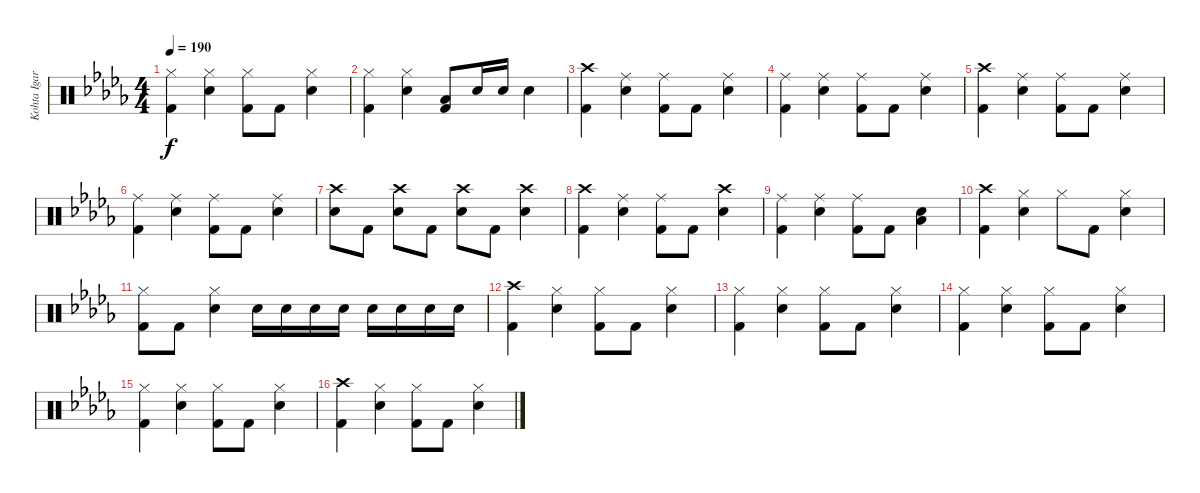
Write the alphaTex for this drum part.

\track ("Kohta Igarashi" "Kohta Igar") {instrument percussion}
\staff {score}
\articulation defaults
\ts (4 4)
\tempo 190
\clef neutral
\ks db
("Hi-Hat (closed)" "Kick (hit) 2").4{dy f} ("Hi-Hat (closed)" "Electric Snare (hit)").4 ("Hi-Hat (closed)" "Kick (hit) 2").8 "Kick (hit) 2".8 ("Hi-Hat (closed)" "Electric Snare (hit)").4 |
("Hi-Hat (closed)" "Kick (hit) 2").4 ("Hi-Hat (closed)" "Electric Snare (hit)").4 ("Low Floor Tom (hit)" "Kick (hit) 2").8 "Electric Snare (hit)".16 "Electric Snare (hit)".16 "Electric Snare (hit)".4 |
("Crash high (hit)" "Kick (hit) 2").4 ("Ride (middle)" "Electric Snare (hit)").4 ("Ride (middle)" "Kick (hit) 2").8 "Kick (hit) 2".8 ("Ride (middle)" "Electric Snare (hit)").4 |
("Ride (middle)" "Kick (hit) 2").4 ("Ride (middle)" "Electric Snare (hit)").4 ("Ride (middle)" "Kick (hit) 2").8 "Kick (hit) 2".8 ("Ride (middle)" "Electric Snare (hit)").4 |
("Crash high (hit)" "Kick (hit) 2").4 ("Ride (middle)" "Electric Snare (hit)").4 ("Ride (middle)" "Kick (hit) 2").8 "Kick (hit) 2".8 ("Ride (middle)" "Electric Snare (hit)").4 |
("Ride (middle)" "Kick (hit) 2").4 ("Ride (middle)" "Electric Snare (hit)").4 ("Ride (middle)" "Kick (hit) 2").8 "Kick (hit) 2".8 ("Ride (middle)" "Electric Snare (hit)").4 |
("Crash high (hit)" "Electric Snare (hit)").8 "Kick (hit) 2".8 ("Crash high (hit)" "Electric Snare (hit)").8 "Kick (hit) 2".8 ("Crash high (hit)" "Electric Snare (hit)").8 "Kick (hit) 2".8 ("Crash high (hit)" "Electric Snare (hit)").4 |
("Crash high (hit)" "Kick (hit) 2").4 ("Ride (middle)" "Electric Snare (hit)").4 ("Ride (middle)" "Kick (hit) 2").8 "Kick (hit) 2".8 ("Crash high (hit)" "Electric Snare (hit)").4 |
("Ride (middle)" "Kick (hit) 2").4 ("Ride (middle)" "Electric Snare (hit)").4 ("Ride (middle)" "Kick (hit) 2").8 "Kick (hit) 2".8 ("Electric Snare (hit)" "Low Floor Tom (hit)").4 |
("Crash high (hit)" "Kick (hit) 2").4 ("Hi-Hat (closed)" "Electric Snare (hit)").4 "Hi-Hat (closed)".8 "Kick (hit) 2".8 ("Hi-Hat (closed)" "Electric Snare (hit)").4 |
("Hi-Hat (closed)" "Kick (hit) 2").8 "Kick (hit) 2".8 ("Hi-Hat (closed)" "Electric Snare (hit)").4 "Electric Snare (hit)".16 "Electric Snare (hit)".16 "Electric Snare (hit)".16 "Electric Snare (hit)".16 "Electric Snare (hit)".16 "Electric Snare (hit)".16 "Electric Snare (hit)".16 "Electric Snare (hit)".16 |
("Crash high (hit)" "Kick (hit) 2").4 ("Hi-Hat (closed)" "Electric Snare (hit)").4 ("Hi-Hat (closed)" "Kick (hit) 2").8 "Kick (hit) 2".8 ("Hi-Hat (closed)" "Electric Snare (hit)").4 |
("Hi-Hat (closed)" "Kick (hit) 2").4 ("Hi-Hat (closed)" "Electric Snare (hit)").4 ("Hi-Hat (closed)" "Kick (hit) 2").8 "Kick (hit) 2".8 ("Hi-Hat (closed)" "Electric Snare (hit)").4 |
("Hi-Hat (closed)" "Kick (hit) 2").4 ("Hi-Hat (closed)" "Electric Snare (hit)").4 ("Hi-Hat (closed)" "Kick (hit) 2").8 "Kick (hit) 2".8 ("Hi-Hat (closed)" "Electric Snare (hit)").4 |
("Hi-Hat (closed)" "Kick (hit) 2").4 ("Hi-Hat (closed)" "Electric Snare (hit)").4 ("Hi-Hat (closed)" "Kick (hit) 2").8 "Kick (hit) 2".8 ("Hi-Hat (closed)" "Electric Snare (hit)").4 |
("Crash high (hit)" "Kick (hit) 2").4 ("Hi-Hat (closed)" "Electric Snare (hit)").4 ("Hi-Hat (closed)" "Kick (hit) 2").8 "Kick (hit) 2".8 ("Hi-Hat (closed)" "Electric Snare (hit)").4
